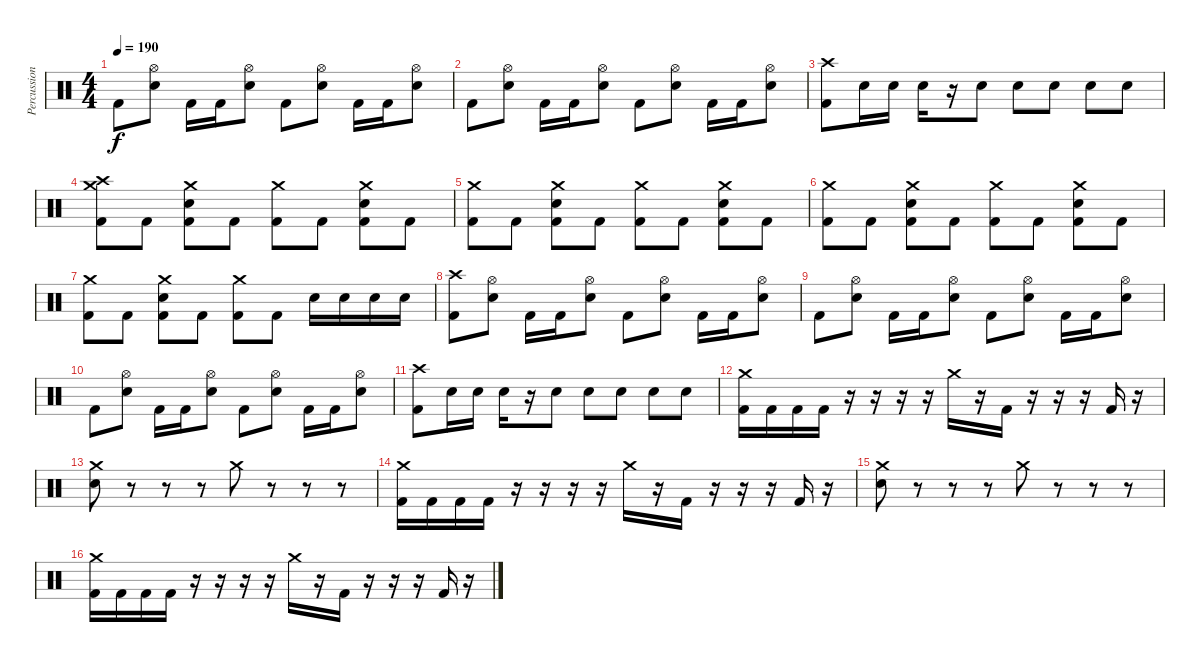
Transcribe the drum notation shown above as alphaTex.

\track ("Percussion" "Percussion") {instrument percussion}
\staff {score}
\articulation defaults
\ts (4 4)
\tempo 190
\clef neutral
\ks c "Kick (hit) 2".8{dy f}
("Hi-Hat (open)" "Snare (hit) 2").8 "Kick (hit) 2".16 "Kick (hit) 2".16 ("Hi-Hat (open)" "Snare (hit) 2").8 "Kick (hit) 2".8 ("Hi-Hat (open)" "Snare (hit) 2").8 "Kick (hit) 2".16 "Kick (hit) 2".16 ("Hi-Hat (open)" "Snare (hit) 2").8 |
"Kick (hit) 2".8 ("Hi-Hat (open)" "Snare (hit) 2").8 "Kick (hit) 2".16 "Kick (hit) 2".16 ("Hi-Hat (open)" "Snare (hit) 2").8 "Kick (hit) 2".8 ("Hi-Hat (open)" "Snare (hit) 2").8 "Kick (hit) 2".16 "Kick (hit) 2".16 ("Hi-Hat (open)" "Snare (hit) 2").8 |
("Crash high (hit)" "Kick (hit) 2").8 "Snare (hit) 2".16 "Snare (hit) 2".16 "Snare (hit) 2".16 r.16 "Snare (hit) 2".8 "Snare (hit) 2".8 "Snare (hit) 2".8 "Snare (hit) 2".8 "Snare (hit) 2".8 |
("Crash medium (hit)" "Crash high (hit)" "Kick (hit) 2").8 "Kick (hit) 2".8 ("Crash medium (hit)" "Snare (hit) 2" "Kick (hit) 2").8 "Kick (hit) 2".8 ("Crash medium (hit)" "Kick (hit) 2").8 "Kick (hit) 2".8 ("Crash medium (hit)" "Snare (hit) 2" "Kick (hit) 2").8 "Kick (hit) 2".8 |
("Crash medium (hit)" "Kick (hit) 2").8 "Kick (hit) 2".8 ("Crash medium (hit)" "Snare (hit) 2" "Kick (hit) 2").8 "Kick (hit) 2".8 ("Crash medium (hit)" "Kick (hit) 2").8 "Kick (hit) 2".8 ("Crash medium (hit)" "Snare (hit) 2" "Kick (hit) 2").8 "Kick (hit) 2".8 |
("Crash medium (hit)" "Kick (hit) 2").8 "Kick (hit) 2".8 ("Crash medium (hit)" "Snare (hit) 2" "Kick (hit) 2").8 "Kick (hit) 2".8 ("Crash medium (hit)" "Kick (hit) 2").8 "Kick (hit) 2".8 ("Crash medium (hit)" "Snare (hit) 2" "Kick (hit) 2").8 "Kick (hit) 2".8 |
("Crash medium (hit)" "Kick (hit) 2").8 "Kick (hit) 2".8 ("Crash medium (hit)" "Snare (hit) 2" "Kick (hit) 2").8 "Kick (hit) 2".8 ("Crash medium (hit)" "Kick (hit) 2").8 "Kick (hit) 2".8 "Snare (hit) 2".16 "Snare (hit) 2".16 "Snare (hit) 2".16 "Snare (hit) 2".16 |
("Crash high (hit)" "Kick (hit) 2").8 ("Hi-Hat (open)" "Snare (hit) 2").8 "Kick (hit) 2".16 "Kick (hit) 2".16 ("Hi-Hat (open)" "Snare (hit) 2").8 "Kick (hit) 2".8 ("Hi-Hat (open)" "Snare (hit) 2").8 "Kick (hit) 2".16 "Kick (hit) 2".16 ("Hi-Hat (open)" "Snare (hit) 2").8 |
"Kick (hit) 2".8 ("Hi-Hat (open)" "Snare (hit) 2").8 "Kick (hit) 2".16 "Kick (hit) 2".16 ("Hi-Hat (open)" "Snare (hit) 2").8 "Kick (hit) 2".8 ("Hi-Hat (open)" "Snare (hit) 2").8 "Kick (hit) 2".16 "Kick (hit) 2".16 ("Hi-Hat (open)" "Snare (hit) 2").8 |
"Kick (hit) 2".8 ("Hi-Hat (open)" "Snare (hit) 2").8 "Kick (hit) 2".16 "Kick (hit) 2".16 ("Hi-Hat (open)" "Snare (hit) 2").8 "Kick (hit) 2".8 ("Hi-Hat (open)" "Snare (hit) 2").8 "Kick (hit) 2".16 "Kick (hit) 2".16 ("Hi-Hat (open)" "Snare (hit) 2").8 |
("Crash high (hit)" "Kick (hit) 2").8 "Snare (hit) 2".16 "Snare (hit) 2".16 "Snare (hit) 2".16 r.16 "Snare (hit) 2".8 "Snare (hit) 2".8 "Snare (hit) 2".8 "Snare (hit) 2".8 "Snare (hit) 2".8 |
("Crash medium (hit)" "Kick (hit) 2").16 "Kick (hit) 2".16 "Kick (hit) 2".16 "Kick (hit) 2".16 r.16 r.16 r.16 r.16 "Crash medium (hit)".16 r.16 "Kick (hit) 2".16 r.16 r.16 r.16 "Kick (hit) 2".16 r.16 |
("Crash medium (hit)" "Snare (hit) 2").8 r.8 r.8 r.8 "Crash medium (hit)".8 r.8 r.8 r.8 |
("Crash medium (hit)" "Kick (hit) 2").16 "Kick (hit) 2".16 "Kick (hit) 2".16 "Kick (hit) 2".16 r.16 r.16 r.16 r.16 "Crash medium (hit)".16 r.16 "Kick (hit) 2".16 r.16 r.16 r.16 "Kick (hit) 2".16 r.16 |
("Crash medium (hit)" "Snare (hit) 2").8 r.8 r.8 r.8 "Crash medium (hit)".8 r.8 r.8 r.8 |
("Crash medium (hit)" "Kick (hit) 2").16 "Kick (hit) 2".16 "Kick (hit) 2".16 "Kick (hit) 2".16 r.16 r.16 r.16 r.16 "Crash medium (hit)".16 r.16 "Kick (hit) 2".16 r.16 r.16 r.16 "Kick (hit) 2".16 r.16
